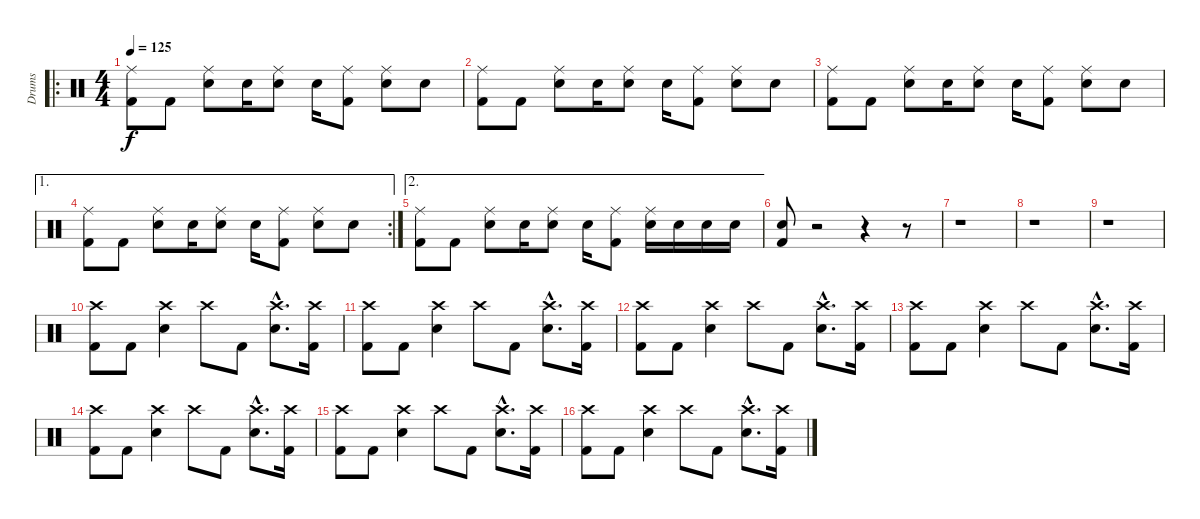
\track ("Drums" "Drums") {instrument percussion}
\staff {score}
\articulation defaults
\ro
\ts (4 4)
\tempo 125
\clef neutral
\ks c
("Ride (middle)" "Kick (hit) 2").8{dy f} "Kick (hit) 2".8 ("Ride (middle)" "Snare (hit) 2").8 "Snare (hit) 2".16 ("Ride (middle)" "Snare (hit) 2").8 "Snare (hit) 2".16 ("Ride (middle)" "Kick (hit) 2").8 ("Ride (middle)" "Snare (hit) 2").8 "Snare (hit) 2".8 |
("Ride (middle)" "Kick (hit) 2").8 "Kick (hit) 2".8 ("Ride (middle)" "Snare (hit) 2").8 "Snare (hit) 2".16 ("Ride (middle)" "Snare (hit) 2").8 "Snare (hit) 2".16 ("Ride (middle)" "Kick (hit) 2").8 ("Ride (middle)" "Snare (hit) 2").8 "Snare (hit) 2".8 |
("Ride (middle)" "Kick (hit) 2").8 "Kick (hit) 2".8 ("Ride (middle)" "Snare (hit) 2").8 "Snare (hit) 2".16 ("Ride (middle)" "Snare (hit) 2").8 "Snare (hit) 2".16 ("Ride (middle)" "Kick (hit) 2").8 ("Ride (middle)" "Snare (hit) 2").8 "Snare (hit) 2".8 |
\ae 1
\rc 2
("Ride (middle)" "Kick (hit) 2").8 "Kick (hit) 2".8 ("Ride (middle)" "Snare (hit) 2").8 "Snare (hit) 2".16 ("Ride (middle)" "Snare (hit) 2").8 "Snare (hit) 2".16 ("Ride (middle)" "Kick (hit) 2").8 ("Ride (middle)" "Snare (hit) 2").8 "Snare (hit) 2".8 |
\ae 2
("Ride (middle)" "Kick (hit) 2").8 "Kick (hit) 2".8 ("Ride (middle)" "Snare (hit) 2").8 "Snare (hit) 2".16 ("Ride (middle)" "Snare (hit) 2").8 "Snare (hit) 2".16 ("Ride (middle)" "Kick (hit) 2").8 ("Ride (middle)" "Snare (hit) 2").16 "Snare (hit) 2".16 "Snare (hit) 2".16 "Snare (hit) 2".16 |
("Snare (hit) 2" "Kick (hit) 2").8 r.2 r.4 r.8 |
r.1 |
r.1 |
r.1 |
("Crash high (hit)" "Kick (hit) 2").8 "Kick (hit) 2".8 ("Crash high (hit)" "Snare (hit) 2").4 "Crash high (hit)".8 "Kick (hit) 2".8 ("Crash high (hit)"{hac} "Snare (hit) 2"{hac}).8{d} ("Crash high (hit)" "Kick (hit) 2").16 |
("Crash high (hit)" "Kick (hit) 2").8 "Kick (hit) 2".8 ("Crash high (hit)" "Snare (hit) 2").4 "Crash high (hit)".8 "Kick (hit) 2".8 ("Crash high (hit)"{hac} "Snare (hit) 2"{hac}).8{d} ("Crash high (hit)" "Kick (hit) 2").16 |
("Crash high (hit)" "Kick (hit) 2").8 "Kick (hit) 2".8 ("Crash high (hit)" "Snare (hit) 2").4 "Crash high (hit)".8 "Kick (hit) 2".8 ("Crash high (hit)"{hac} "Snare (hit) 2"{hac}).8{d} ("Crash high (hit)" "Kick (hit) 2").16 |
("Crash high (hit)" "Kick (hit) 2").8 "Kick (hit) 2".8 ("Crash high (hit)" "Snare (hit) 2").4 "Crash high (hit)".8 "Kick (hit) 2".8 ("Crash high (hit)"{hac} "Snare (hit) 2"{hac}).8{d} ("Crash high (hit)" "Kick (hit) 2").16 |
("Crash high (hit)" "Kick (hit) 2").8 "Kick (hit) 2".8 ("Crash high (hit)" "Snare (hit) 2").4 "Crash high (hit)".8 "Kick (hit) 2".8 ("Crash high (hit)"{hac} "Snare (hit) 2"{hac}).8{d} ("Crash high (hit)" "Kick (hit) 2").16 |
("Crash high (hit)" "Kick (hit) 2").8 "Kick (hit) 2".8 ("Crash high (hit)" "Snare (hit) 2").4 "Crash high (hit)".8 "Kick (hit) 2".8 ("Crash high (hit)"{hac} "Snare (hit) 2"{hac}).8{d} ("Crash high (hit)" "Kick (hit) 2").16 |
("Crash high (hit)" "Kick (hit) 2").8 "Kick (hit) 2".8 ("Crash high (hit)" "Snare (hit) 2").4 "Crash high (hit)".8 "Kick (hit) 2".8 ("Crash high (hit)"{hac} "Snare (hit) 2"{hac}).8{d} ("Crash high (hit)" "Kick (hit) 2").16
